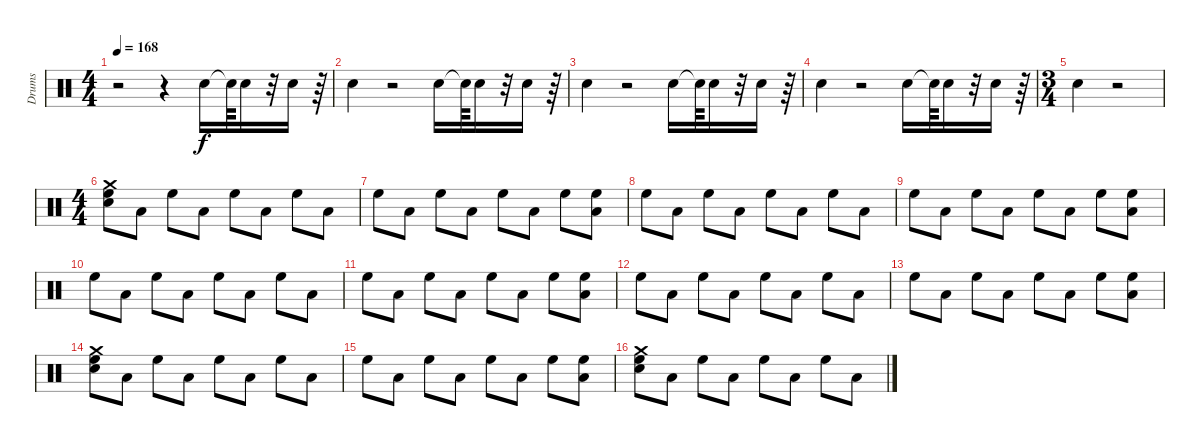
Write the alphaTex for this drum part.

\track ("Drums" "Drums") {instrument percussion}
\staff {score}
\articulation defaults
\ts (4 4)
\tempo 168
\clef neutral
\ks c
r.2{dy f} r.4 "Electric Snare (hit)".16 "Snare (hit)"{t}.64 "Electric Snare (hit)".16 r.32 "Electric Snare (hit)".16 r.64 |
"Electric Snare (hit)".4 r.2 "Electric Snare (hit)".16 "Snare (hit)"{t}.64 "Electric Snare (hit)".16 r.32 "Electric Snare (hit)".16 r.64 |
"Electric Snare (hit)".4 r.2 "Electric Snare (hit)".16 "Snare (hit)"{t}.64 "Electric Snare (hit)".16 r.32 "Electric Snare (hit)".16 r.64 |
"Electric Snare (hit)".4 r.2 "Electric Snare (hit)".16 "Snare (hit)"{t}.64 "Electric Snare (hit)".16 r.32 "Electric Snare (hit)".16 r.64 |
\ts (3 4)
"Electric Snare (hit)".4 r.2 |
\ts (4 4)
("Crash medium (hit)" "Electric Snare (hit)" "High Floor Tom (hit)").8 "Low Tom (hit)".8 "High Floor Tom (hit)".8 "Low Tom (hit)".8 "High Floor Tom (hit)".8 "Low Tom (hit)".8 "High Floor Tom (hit)".8 "Low Tom (hit)".8 |
"High Floor Tom (hit)".8 "Low Tom (hit)".8 "High Floor Tom (hit)".8 "Low Tom (hit)".8 "High Floor Tom (hit)".8 "Low Tom (hit)".8 "High Floor Tom (hit)".8 ("High Floor Tom (hit)" "Low Tom (hit)").8 |
"High Floor Tom (hit)".8 "Low Tom (hit)".8 "High Floor Tom (hit)".8 "Low Tom (hit)".8 "High Floor Tom (hit)".8 "Low Tom (hit)".8 "High Floor Tom (hit)".8 "Low Tom (hit)".8 |
"High Floor Tom (hit)".8 "Low Tom (hit)".8 "High Floor Tom (hit)".8 "Low Tom (hit)".8 "High Floor Tom (hit)".8 "Low Tom (hit)".8 "High Floor Tom (hit)".8 ("High Floor Tom (hit)" "Low Tom (hit)").8 |
"High Floor Tom (hit)".8 "Low Tom (hit)".8 "High Floor Tom (hit)".8 "Low Tom (hit)".8 "High Floor Tom (hit)".8 "Low Tom (hit)".8 "High Floor Tom (hit)".8 "Low Tom (hit)".8 |
"High Floor Tom (hit)".8 "Low Tom (hit)".8 "High Floor Tom (hit)".8 "Low Tom (hit)".8 "High Floor Tom (hit)".8 "Low Tom (hit)".8 "High Floor Tom (hit)".8 ("High Floor Tom (hit)" "Low Tom (hit)").8 |
"High Floor Tom (hit)".8 "Low Tom (hit)".8 "High Floor Tom (hit)".8 "Low Tom (hit)".8 "High Floor Tom (hit)".8 "Low Tom (hit)".8 "High Floor Tom (hit)".8 "Low Tom (hit)".8 |
"High Floor Tom (hit)".8 "Low Tom (hit)".8 "High Floor Tom (hit)".8 "Low Tom (hit)".8 "High Floor Tom (hit)".8 "Low Tom (hit)".8 "High Floor Tom (hit)".8 ("High Floor Tom (hit)" "Low Tom (hit)").8 |
("Crash medium (hit)" "Electric Snare (hit)" "High Floor Tom (hit)").8 "Low Tom (hit)".8 "High Floor Tom (hit)".8 "Low Tom (hit)".8 "High Floor Tom (hit)".8 "Low Tom (hit)".8 "High Floor Tom (hit)".8 "Low Tom (hit)".8 |
"High Floor Tom (hit)".8 "Low Tom (hit)".8 "High Floor Tom (hit)".8 "Low Tom (hit)".8 "High Floor Tom (hit)".8 "Low Tom (hit)".8 "High Floor Tom (hit)".8 ("High Floor Tom (hit)" "Low Tom (hit)").8 |
("Electric Snare (hit)" "Crash medium (hit)" "High Floor Tom (hit)").8 "Low Tom (hit)".8 "High Floor Tom (hit)".8 "Low Tom (hit)".8 "High Floor Tom (hit)".8 "Low Tom (hit)".8 "High Floor Tom (hit)".8 "Low Tom (hit)".8
